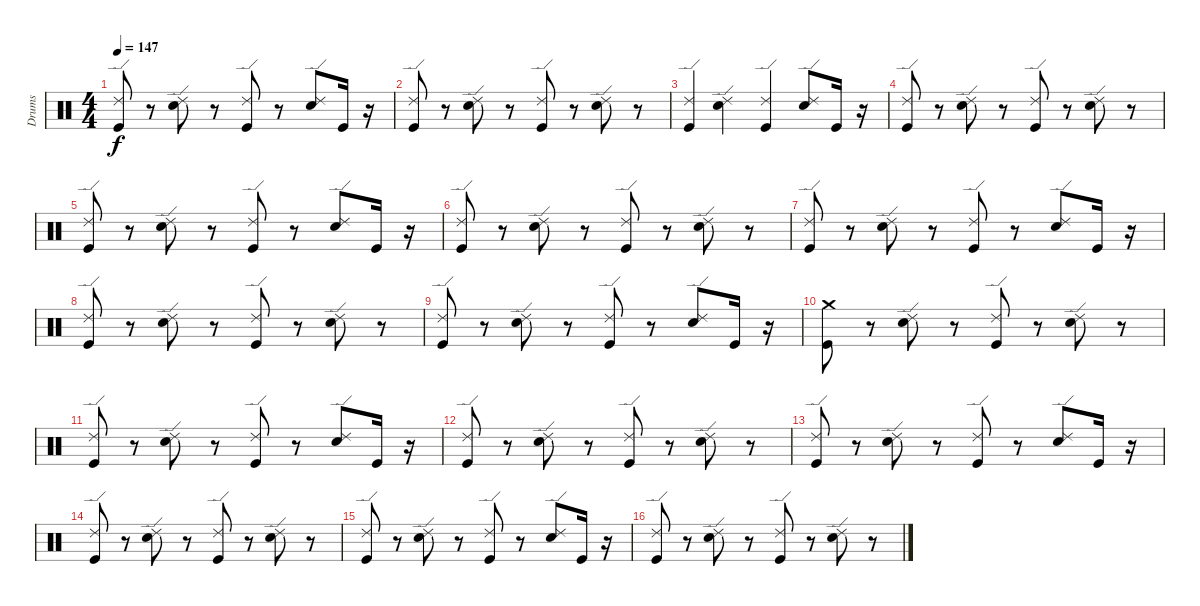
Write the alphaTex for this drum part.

\track ("Drums" "Drums") {instrument percussion}
\staff {score}
\articulation defaults
\ts (4 4)
\tempo 147
\clef neutral
\ks c
("Ride (edge) 2" "Kick (hit)").8{dy f} r.8 ("Ride (edge) 2" "Snare (hit) 2").8 r.8 ("Ride (edge) 2" "Kick (hit)").8 r.8 ("Ride (edge) 2" "Snare (hit) 2").8 "Kick (hit)".16 r.16 |
("Ride (edge) 2" "Kick (hit)").8 r.8 ("Ride (edge) 2" "Snare (hit) 2").8 r.8 ("Ride (edge) 2" "Kick (hit)").8 r.8 ("Ride (edge) 2" "Snare (hit) 2").8 r.8 |
("Ride (edge) 2" "Kick (hit)").4 ("Ride (edge) 2" "Snare (hit) 2").4 ("Ride (edge) 2" "Kick (hit)").4 ("Ride (edge) 2" "Snare (hit) 2").8 "Kick (hit)".16 r.16 |
("Ride (edge) 2" "Kick (hit)").8 r.8 ("Ride (edge) 2" "Snare (hit) 2").8 r.8 ("Ride (edge) 2" "Kick (hit)").8 r.8 ("Ride (edge) 2" "Snare (hit) 2").8 r.8 |
("Ride (edge) 2" "Kick (hit)").8 r.8 ("Ride (edge) 2" "Snare (hit) 2").8 r.8 ("Ride (edge) 2" "Kick (hit)").8 r.8 ("Ride (edge) 2" "Snare (hit) 2").8 "Kick (hit)".16 r.16 |
("Ride (edge) 2" "Kick (hit)").8 r.8 ("Ride (edge) 2" "Snare (hit) 2").8 r.8 ("Ride (edge) 2" "Kick (hit)").8 r.8 ("Ride (edge) 2" "Snare (hit) 2").8 r.8 |
("Ride (edge) 2" "Kick (hit)").8 r.8 ("Ride (edge) 2" "Snare (hit) 2").8 r.8 ("Ride (edge) 2" "Kick (hit)").8 r.8 ("Ride (edge) 2" "Snare (hit) 2").8 "Kick (hit)".16 r.16 |
("Ride (edge) 2" "Kick (hit)").8 r.8 ("Ride (edge) 2" "Snare (hit) 2").8 r.8 ("Ride (edge) 2" "Kick (hit)").8 r.8 ("Ride (edge) 2" "Snare (hit) 2").8 r.8 |
("Ride (edge) 2" "Kick (hit)").8 r.8 ("Ride (edge) 2" "Snare (hit) 2").8 r.8 ("Ride (edge) 2" "Kick (hit)").8 r.8 ("Ride (edge) 2" "Snare (hit) 2").8 "Kick (hit)".16 r.16 |
("Crash medium (hit)" "Kick (hit)").8 r.8 ("Ride (edge) 2" "Snare (hit) 2").8 r.8 ("Ride (edge) 2" "Kick (hit)").8 r.8 ("Ride (edge) 2" "Snare (hit) 2").8 r.8 |
("Ride (edge) 2" "Kick (hit)").8 r.8 ("Ride (edge) 2" "Snare (hit) 2").8 r.8 ("Ride (edge) 2" "Kick (hit)").8 r.8 ("Ride (edge) 2" "Snare (hit) 2").8 "Kick (hit)".16 r.16 |
("Ride (edge) 2" "Kick (hit)").8 r.8 ("Ride (edge) 2" "Snare (hit) 2").8 r.8 ("Ride (edge) 2" "Kick (hit)").8 r.8 ("Ride (edge) 2" "Snare (hit) 2").8 r.8 |
("Ride (edge) 2" "Kick (hit)").8 r.8 ("Ride (edge) 2" "Snare (hit) 2").8 r.8 ("Ride (edge) 2" "Kick (hit)").8 r.8 ("Ride (edge) 2" "Snare (hit) 2").8 "Kick (hit)".16 r.16 |
("Ride (edge) 2" "Kick (hit)").8 r.8 ("Ride (edge) 2" "Snare (hit) 2").8 r.8 ("Ride (edge) 2" "Kick (hit)").8 r.8 ("Ride (edge) 2" "Snare (hit) 2").8 r.8 |
("Ride (edge) 2" "Kick (hit)").8 r.8 ("Ride (edge) 2" "Snare (hit) 2").8 r.8 ("Ride (edge) 2" "Kick (hit)").8 r.8 ("Ride (edge) 2" "Snare (hit) 2").8 "Kick (hit)".16 r.16 |
("Ride (edge) 2" "Kick (hit)").8 r.8 ("Ride (edge) 2" "Snare (hit) 2").8 r.8 ("Ride (edge) 2" "Kick (hit)").8 r.8 ("Ride (edge) 2" "Snare (hit) 2").8 r.8
